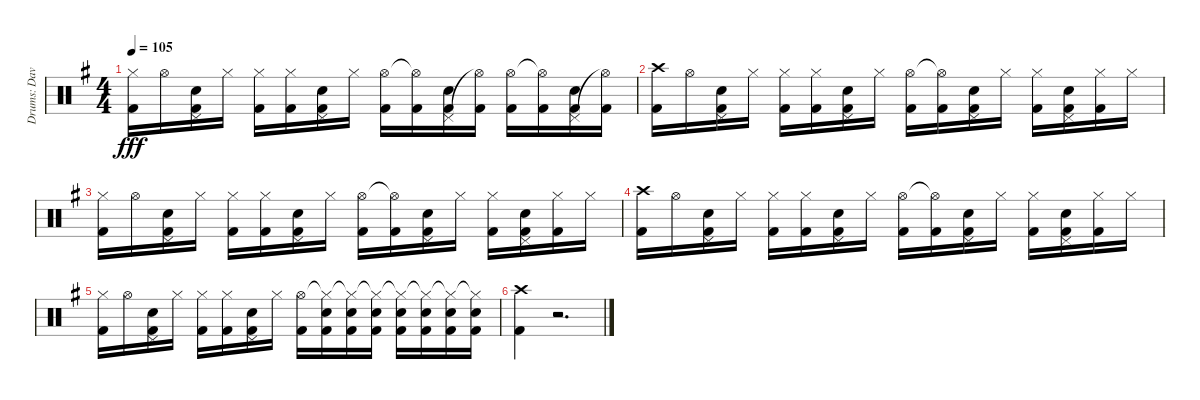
\track ("Drums: Dave" "Drums: Dav") {instrument percussion}
\staff {score}
\articulation defaults
\ts (4 4)
\tempo 105
\clef neutral
\ks g
("Hi-Hat (closed)" "Kick (hit) 2").16{dy fff} "Hi-Hat (open)".16 ("Pedal Hi-Hat (hit)" "Snare (hit) 2" "Kick (hit) 2").16 "Hi-Hat (closed)".16 ("Hi-Hat (closed)" "Kick (hit) 2").16 ("Hi-Hat (closed)" "Kick (hit) 2").16 ("Pedal Hi-Hat (hit)" "Snare (hit) 2" "Kick (hit) 2").16 "Hi-Hat (closed)".16 ("Hi-Hat (open)" "Kick (hit) 2").16 ("Hi-Hat (open)"{t} "Kick (hit) 2").16 ("Pedal Hi-Hat (hit)" "Snare (hit) 2" "Kick (hit) 2").16 ("Hi-Hat (open)"{t} "Kick (hit) 2").16 ("Hi-Hat (open)" "Kick (hit) 2").16 ("Hi-Hat (open)"{t} "Kick (hit) 2").16 ("Pedal Hi-Hat (hit)" "Snare (hit) 2" "Kick (hit) 2").16 ("Hi-Hat (open)"{t} "Kick (hit) 2").16 |
("Crash high (hit)" "Kick (hit) 2").16 "Hi-Hat (open)".16 ("Pedal Hi-Hat (hit)" "Snare (hit) 2" "Kick (hit) 2").16 "Hi-Hat (closed)".16 ("Hi-Hat (closed)" "Kick (hit) 2").16 ("Hi-Hat (closed)" "Kick (hit) 2").16 ("Pedal Hi-Hat (hit)" "Snare (hit) 2" "Kick (hit) 2").16 "Hi-Hat (closed)".16 ("Hi-Hat (open)" "Kick (hit) 2").16 ("Hi-Hat (open)"{t} "Kick (hit) 2").16 ("Pedal Hi-Hat (hit)" "Snare (hit) 2" "Kick (hit) 2").16 "Hi-Hat (closed)".16 ("Hi-Hat (closed)" "Kick (hit) 2").16 ("Pedal Hi-Hat (hit)" "Snare (hit) 2" "Kick (hit) 2").16 ("Hi-Hat (closed)" "Kick (hit) 2").16 "Hi-Hat (closed)".16 |
("Hi-Hat (closed)" "Kick (hit) 2").16 "Hi-Hat (open)".16 ("Pedal Hi-Hat (hit)" "Snare (hit) 2" "Kick (hit) 2").16 "Hi-Hat (closed)".16 ("Hi-Hat (closed)" "Kick (hit) 2").16 ("Hi-Hat (closed)" "Kick (hit) 2").16 ("Pedal Hi-Hat (hit)" "Snare (hit) 2" "Kick (hit) 2").16 "Hi-Hat (closed)".16 ("Hi-Hat (open)" "Kick (hit) 2").16 ("Hi-Hat (open)"{t} "Kick (hit) 2").16 ("Pedal Hi-Hat (hit)" "Snare (hit) 2" "Kick (hit) 2").16 "Hi-Hat (closed)".16 ("Hi-Hat (closed)" "Kick (hit) 2").16 ("Pedal Hi-Hat (hit)" "Snare (hit) 2" "Kick (hit) 2").16 ("Hi-Hat (closed)" "Kick (hit) 2").16 "Hi-Hat (closed)".16 |
("Crash high (hit)" "Kick (hit) 2").16 "Hi-Hat (open)".16 ("Pedal Hi-Hat (hit)" "Snare (hit) 2" "Kick (hit) 2").16 "Hi-Hat (closed)".16 ("Hi-Hat (closed)" "Kick (hit) 2").16 ("Hi-Hat (closed)" "Kick (hit) 2").16 ("Pedal Hi-Hat (hit)" "Snare (hit) 2" "Kick (hit) 2").16 "Hi-Hat (closed)".16 ("Hi-Hat (open)" "Kick (hit) 2").16 ("Hi-Hat (open)"{t} "Kick (hit) 2").16 ("Pedal Hi-Hat (hit)" "Snare (hit) 2" "Kick (hit) 2").16 "Hi-Hat (closed)".16 ("Hi-Hat (closed)" "Kick (hit) 2").16 ("Pedal Hi-Hat (hit)" "Snare (hit) 2" "Kick (hit) 2").16 ("Hi-Hat (closed)" "Kick (hit) 2").16 "Hi-Hat (closed)".16 |
("Hi-Hat (closed)" "Kick (hit) 2").16 "Hi-Hat (open)".16 ("Pedal Hi-Hat (hit)" "Snare (hit) 2" "Kick (hit) 2").16 "Hi-Hat (closed)".16 ("Hi-Hat (closed)" "Kick (hit) 2").16 ("Hi-Hat (closed)" "Kick (hit) 2").16 ("Pedal Hi-Hat (hit)" "Snare (hit) 2" "Kick (hit) 2").16 "Hi-Hat (closed)".16 ("Hi-Hat (open)" "Kick (hit) 2").16 ("Hi-Hat (closed)"{t} "Electric Snare (hit)" "Kick (hit) 2").16 ("Hi-Hat (closed)"{t} "Electric Snare (hit)" "Kick (hit) 2").16 ("Hi-Hat (closed)"{t} "Electric Snare (hit)" "Kick (hit) 2").16 ("Hi-Hat (closed)"{t} "Electric Snare (hit)" "Kick (hit) 2").16 ("Hi-Hat (closed)"{t} "Electric Snare (hit)" "Kick (hit) 2").16 ("Hi-Hat (closed)"{t} "Electric Snare (hit)" "Kick (hit) 2").16 ("Hi-Hat (closed)"{t} "Electric Snare (hit)" "Kick (hit) 2").16 |
("Crash high (hit)" "Kick (hit) 2").4 r.2{d}
